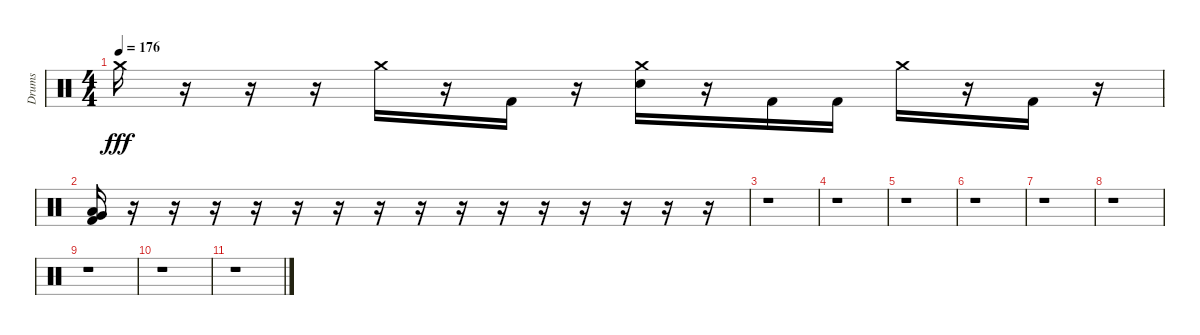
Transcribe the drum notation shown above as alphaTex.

\track ("Drums" "Drums") {instrument percussion}
\staff {score}
\articulation defaults
\ts (4 4)
\tempo 176
\clef neutral
\ks c "Crash medium (hit)".16{dy fff}
r.16 r.16 r.16 "Crash medium (hit)".16 r.16 "Kick (hit) 2".16 r.16 ("Crash medium (hit)" "Electric Snare (hit)").16 r.16 "Kick (hit) 2".16 "Kick (hit) 2".16 "Crash medium (hit)".16 r.16 "Kick (hit) 2".16 r.16 |
("Kick (hit) 2" "Low Floor Tom (hit)" "Very Low Tom (hit)").16{bd 30} r.16 r.16 r.16 r.16 r.16 r.16 r.16 r.16 r.16 r.16 r.16 r.16 r.16 r.16 r.16 |
r.1 |
r.1 |
r.1 |
r.1 |
r.1 |
r.1 |
r.1 |
r.1 |
r.1
